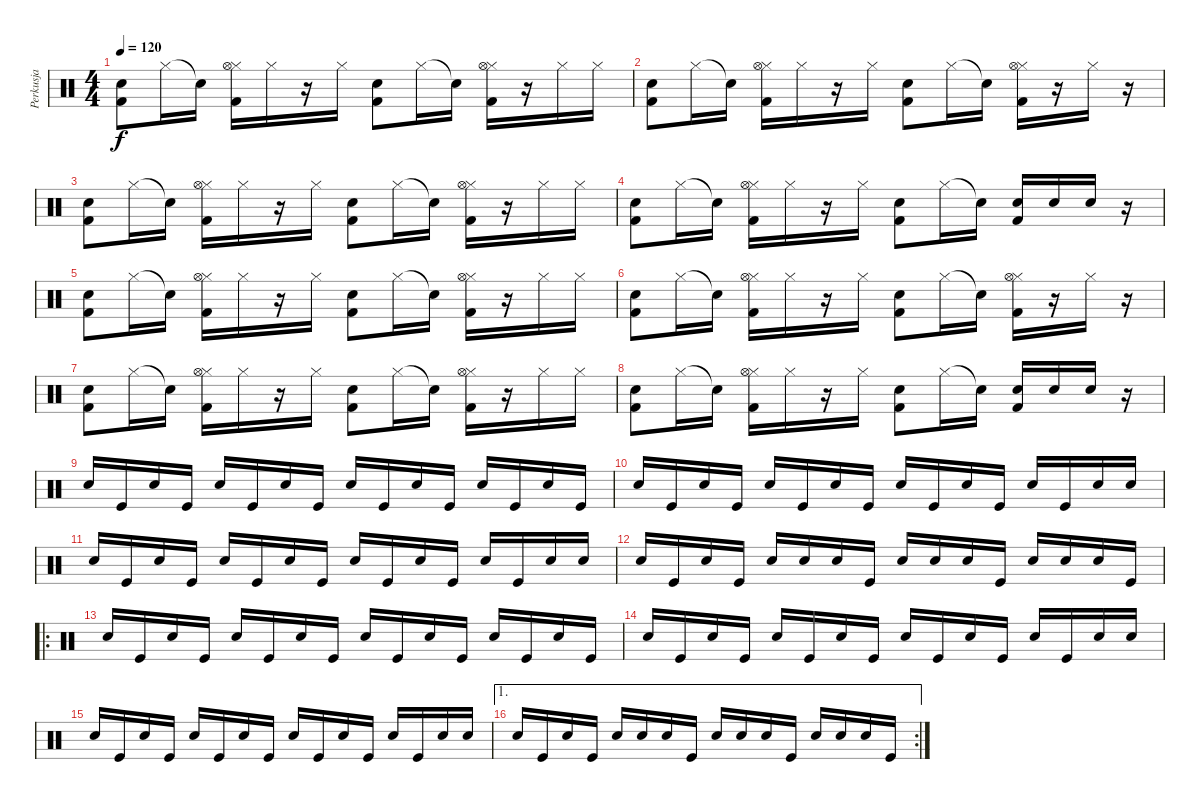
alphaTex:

\track ("Perkusja" "Perkusja") {instrument percussion}
\staff {score}
\articulation defaults
\ts (4 4)
\tempo 120
\clef neutral
\ks c
("Snare (hit) 2" "Kick (hit) 2").8{dy f} "Hi-Hat (closed)".16 "Snare (hit)"{t}.16 ("Hi-Hat (closed)" "Hi-Hat (open)" "Kick (hit) 2").16 "Hi-Hat (closed)".16 r.16 "Hi-Hat (closed)".16 ("Snare (hit) 2" "Kick (hit) 2").8 "Hi-Hat (closed)".16 "Snare (hit)"{t}.16 ("Hi-Hat (closed)" "Hi-Hat (open)" "Kick (hit) 2").16 r.16 "Hi-Hat (closed)".16 "Hi-Hat (closed)".16 |
("Snare (hit) 2" "Kick (hit) 2").8 "Hi-Hat (closed)".16 "Snare (hit)"{t}.16 ("Hi-Hat (closed)" "Hi-Hat (open)" "Kick (hit) 2").16 "Hi-Hat (closed)".16 r.16 "Hi-Hat (closed)".16 ("Snare (hit) 2" "Kick (hit) 2").8 "Hi-Hat (closed)".16 "Snare (hit)"{t}.16 ("Hi-Hat (closed)" "Hi-Hat (open)" "Kick (hit) 2").16 r.16 "Hi-Hat (closed)".16 r.16 |
("Snare (hit) 2" "Kick (hit) 2").8 "Hi-Hat (closed)".16 "Snare (hit)"{t}.16 ("Hi-Hat (closed)" "Hi-Hat (open)" "Kick (hit) 2").16 "Hi-Hat (closed)".16 r.16 "Hi-Hat (closed)".16 ("Snare (hit) 2" "Kick (hit) 2").8 "Hi-Hat (closed)".16 "Snare (hit)"{t}.16 ("Hi-Hat (closed)" "Hi-Hat (open)" "Kick (hit) 2").16 r.16 "Hi-Hat (closed)".16 "Hi-Hat (closed)".16 |
("Snare (hit) 2" "Kick (hit) 2").8 "Hi-Hat (closed)".16 "Snare (hit)"{t}.16 ("Hi-Hat (closed)" "Hi-Hat (open)" "Kick (hit) 2").16 "Hi-Hat (closed)".16 r.16 "Hi-Hat (closed)".16 ("Snare (hit) 2" "Kick (hit) 2").8 "Hi-Hat (closed)".16 "Snare (hit)"{t}.16 ("Electric Snare (hit)" "Kick (hit) 2").16 "Electric Snare (hit)".16 "Electric Snare (hit)".16 r.16 |
("Snare (hit) 2" "Kick (hit) 2").8 "Hi-Hat (closed)".16 "Snare (hit)"{t}.16 ("Hi-Hat (closed)" "Hi-Hat (open)" "Kick (hit) 2").16 "Hi-Hat (closed)".16 r.16 "Hi-Hat (closed)".16 ("Snare (hit) 2" "Kick (hit) 2").8 "Hi-Hat (closed)".16 "Snare (hit)"{t}.16 ("Hi-Hat (closed)" "Hi-Hat (open)" "Kick (hit) 2").16 r.16 "Hi-Hat (closed)".16 "Hi-Hat (closed)".16 |
("Snare (hit) 2" "Kick (hit) 2").8 "Hi-Hat (closed)".16 "Snare (hit)"{t}.16 ("Hi-Hat (closed)" "Hi-Hat (open)" "Kick (hit) 2").16 "Hi-Hat (closed)".16 r.16 "Hi-Hat (closed)".16 ("Snare (hit) 2" "Kick (hit) 2").8 "Hi-Hat (closed)".16 "Snare (hit)"{t}.16 ("Hi-Hat (closed)" "Hi-Hat (open)" "Kick (hit) 2").16 r.16 "Hi-Hat (closed)".16 r.16 |
("Snare (hit) 2" "Kick (hit) 2").8 "Hi-Hat (closed)".16 "Snare (hit)"{t}.16 ("Hi-Hat (closed)" "Hi-Hat (open)" "Kick (hit) 2").16 "Hi-Hat (closed)".16 r.16 "Hi-Hat (closed)".16 ("Snare (hit) 2" "Kick (hit) 2").8 "Hi-Hat (closed)".16 "Snare (hit)"{t}.16 ("Hi-Hat (closed)" "Hi-Hat (open)" "Kick (hit) 2").16 r.16 "Hi-Hat (closed)".16 "Hi-Hat (closed)".16 |
("Snare (hit) 2" "Kick (hit) 2").8 "Hi-Hat (closed)".16 "Snare (hit)"{t}.16 ("Hi-Hat (closed)" "Hi-Hat (open)" "Kick (hit) 2").16 "Hi-Hat (closed)".16 r.16 "Hi-Hat (closed)".16 ("Snare (hit) 2" "Kick (hit) 2").8 "Hi-Hat (closed)".16 "Snare (hit)"{t}.16 ("Electric Snare (hit)" "Kick (hit) 2").16 "Electric Snare (hit)".16 "Electric Snare (hit)".16 r.16 |
"Electric Snare (hit)".16 "Kick (hit)".16 "Electric Snare (hit)".16 "Kick (hit)".16 "Electric Snare (hit)".16 "Kick (hit)".16 "Electric Snare (hit)".16 "Kick (hit)".16 "Electric Snare (hit)".16 "Kick (hit)".16 "Electric Snare (hit)".16 "Kick (hit)".16 "Electric Snare (hit)".16 "Kick (hit)".16 "Electric Snare (hit)".16 "Kick (hit)".16 |
"Electric Snare (hit)".16 "Kick (hit)".16 "Electric Snare (hit)".16 "Kick (hit)".16 "Electric Snare (hit)".16 "Kick (hit)".16 "Electric Snare (hit)".16 "Kick (hit)".16 "Electric Snare (hit)".16 "Kick (hit)".16 "Electric Snare (hit)".16 "Kick (hit)".16 "Electric Snare (hit)".16 "Kick (hit)".16 "Electric Snare (hit)".16 "Electric Snare (hit)".16 |
"Electric Snare (hit)".16 "Kick (hit)".16 "Electric Snare (hit)".16 "Kick (hit)".16 "Electric Snare (hit)".16 "Kick (hit)".16 "Electric Snare (hit)".16 "Kick (hit)".16 "Electric Snare (hit)".16 "Kick (hit)".16 "Electric Snare (hit)".16 "Kick (hit)".16 "Electric Snare (hit)".16 "Kick (hit)".16 "Electric Snare (hit)".16 "Electric Snare (hit)".16 |
"Electric Snare (hit)".16 "Kick (hit)".16 "Electric Snare (hit)".16 "Kick (hit)".16 "Electric Snare (hit)".16 "Electric Snare (hit)".16 "Electric Snare (hit)".16 "Kick (hit)".16 "Electric Snare (hit)".16 "Electric Snare (hit)".16 "Electric Snare (hit)".16 "Kick (hit)".16 "Electric Snare (hit)".16 "Electric Snare (hit)".16 "Electric Snare (hit)".16 "Kick (hit)".16 |
\ro "Electric Snare (hit)".16 "Kick (hit)".16 "Electric Snare (hit)".16 "Kick (hit)".16 "Electric Snare (hit)".16 "Kick (hit)".16 "Electric Snare (hit)".16 "Kick (hit)".16 "Electric Snare (hit)".16 "Kick (hit)".16 "Electric Snare (hit)".16 "Kick (hit)".16 "Electric Snare (hit)".16 "Kick (hit)".16 "Electric Snare (hit)".16 "Kick (hit)".16
|
"Electric Snare (hit)".16 "Kick (hit)".16 "Electric Snare (hit)".16 "Kick (hit)".16 "Electric Snare (hit)".16 "Kick (hit)".16 "Electric Snare (hit)".16 "Kick (hit)".16 "Electric Snare (hit)".16 "Kick (hit)".16 "Electric Snare (hit)".16 "Kick (hit)".16 "Electric Snare (hit)".16 "Kick (hit)".16 "Electric Snare (hit)".16 "Electric Snare (hit)".16 |
"Electric Snare (hit)".16 "Kick (hit)".16 "Electric Snare (hit)".16 "Kick (hit)".16 "Electric Snare (hit)".16 "Kick (hit)".16 "Electric Snare (hit)".16 "Kick (hit)".16 "Electric Snare (hit)".16 "Kick (hit)".16 "Electric Snare (hit)".16 "Kick (hit)".16 "Electric Snare (hit)".16 "Kick (hit)".16 "Electric Snare (hit)".16 "Electric Snare (hit)".16 |
\ae 1
\rc 2 "Electric Snare (hit)".16 "Kick (hit)".16 "Electric Snare (hit)".16 "Kick (hit)".16 "Electric Snare (hit)".16 "Electric Snare (hit)".16 "Electric Snare (hit)".16 "Kick (hit)".16 "Electric Snare (hit)".16 "Electric Snare (hit)".16 "Electric Snare (hit)".16 "Kick (hit)".16 "Electric Snare (hit)".16 "Electric Snare (hit)".16 "Electric Snare (hit)".16 "Kick (hit)".16
